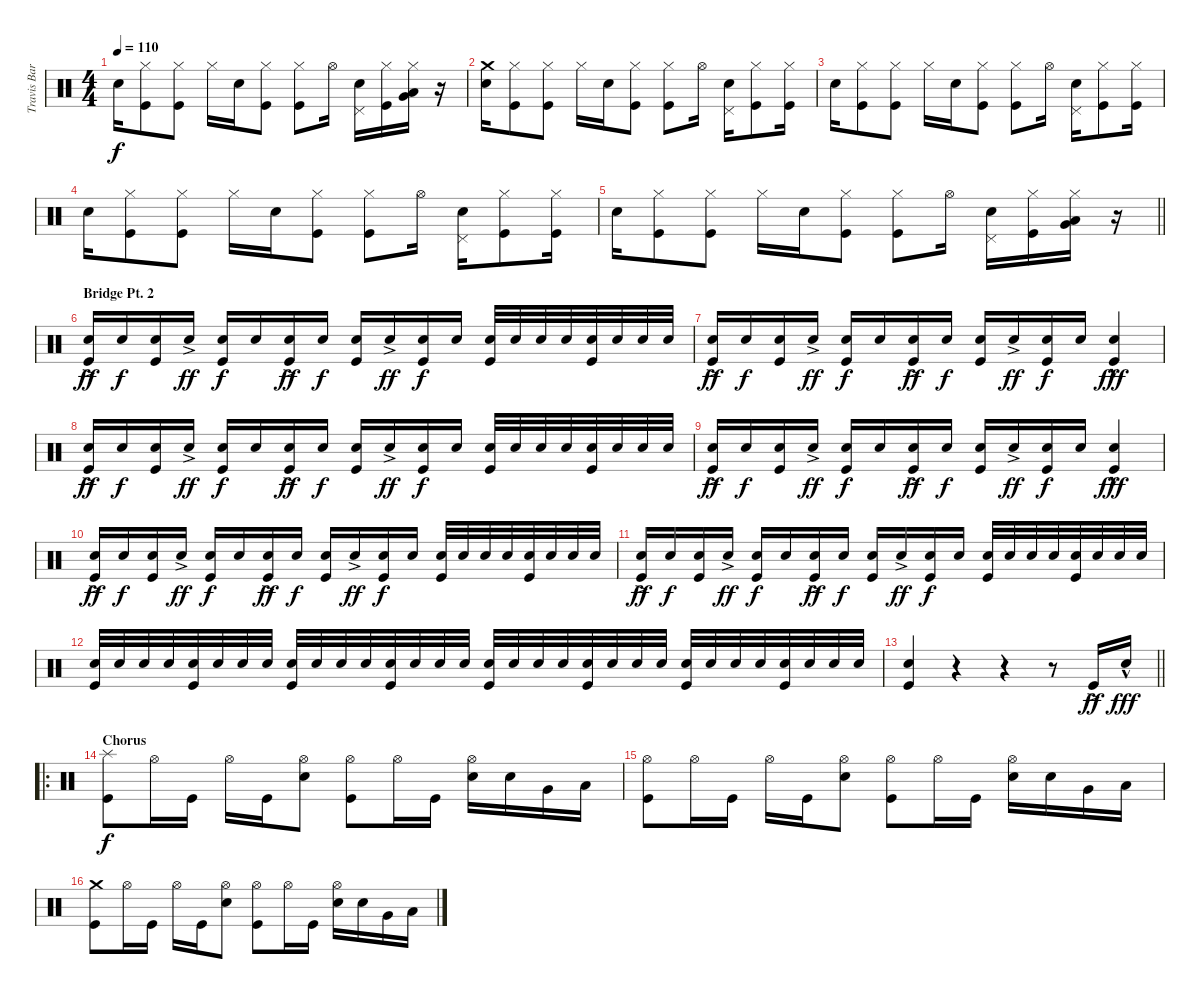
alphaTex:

\track ("Travis Barker (Drums)" "Travis Bar") {instrument percussion bank 10}
\staff {score}
\articulation defaults
\ts (4 4)
\tempo 110
\clef neutral
\ks c "Snare (hit) 2".16{dy f}
("Hi-Hat (closed)" "Kick (hit)").8 ("Hi-Hat (closed)" "Kick (hit)").8 "Hi-Hat (closed)".16 "Snare (hit) 2".16 ("Hi-Hat (closed)" "Kick (hit)").8 ("Hi-Hat (closed)" "Kick (hit)").8 "Hi-Hat (open)".16 ("Pedal Hi-Hat (hit)" "Snare (hit) 2").16 ("Hi-Hat (closed)" "Kick (hit)").16 ("Hi-Hat (closed)" "Very Low Tom (hit)" "Low Floor Tom (hit)").16 r.16 |
("Crash medium (hit)" "Snare (hit) 2").16 ("Hi-Hat (closed)" "Kick (hit)").8 ("Hi-Hat (closed)" "Kick (hit)").8 "Hi-Hat (closed)".16 "Snare (hit) 2".16 ("Hi-Hat (closed)" "Kick (hit)").8 ("Hi-Hat (closed)" "Kick (hit)").8 "Hi-Hat (open)".16 ("Pedal Hi-Hat (hit)" "Snare (hit) 2").16 ("Hi-Hat (closed)" "Kick (hit)").8 ("Hi-Hat (closed)" "Kick (hit)").16 |
"Snare (hit) 2".16 ("Hi-Hat (closed)" "Kick (hit)").8 ("Hi-Hat (closed)" "Kick (hit)").8 "Hi-Hat (closed)".16 "Snare (hit) 2".16 ("Hi-Hat (closed)" "Kick (hit)").8 ("Hi-Hat (closed)" "Kick (hit)").8 "Hi-Hat (open)".16 ("Pedal Hi-Hat (hit)" "Snare (hit) 2").16 ("Hi-Hat (closed)" "Kick (hit)").8 ("Hi-Hat (closed)" "Kick (hit)").16 |
"Snare (hit) 2".16 ("Hi-Hat (closed)" "Kick (hit)").8 ("Hi-Hat (closed)" "Kick (hit)").8 "Hi-Hat (closed)".16 "Snare (hit) 2".16 ("Hi-Hat (closed)" "Kick (hit)").8 ("Hi-Hat (closed)" "Kick (hit)").8 "Hi-Hat (open)".16 ("Pedal Hi-Hat (hit)" "Snare (hit) 2").16 ("Hi-Hat (closed)" "Kick (hit)").8 ("Hi-Hat (closed)" "Kick (hit)").16 |
\barLineRight lightlight "Snare (hit) 2".16
("Hi-Hat (closed)" "Kick (hit)").8 ("Hi-Hat (closed)" "Kick (hit)").8 "Hi-Hat (closed)".16 "Snare (hit) 2".16 ("Hi-Hat (closed)" "Kick (hit)").8 ("Hi-Hat (closed)" "Kick (hit)").8 "Hi-Hat (open)".16 ("Pedal Hi-Hat (hit)" "Snare (hit) 2").16 ("Hi-Hat (closed)" "Kick (hit)").16 ("Hi-Hat (closed)" "Very Low Tom (hit)" "Low Floor Tom (hit)").16 r.16 |
\section ("" "Bridge Pt. 2")
("Snare (hit) 2"{ac} "Kick (hit)").16{dy ff} "Snare (hit) 2".16{dy f} ("Snare (hit) 2" "Kick (hit)").16 "Snare (hit) 2"{ac}.16{dy ff} ("Snare (hit) 2" "Kick (hit)").16{dy f} "Snare (hit) 2".16 ("Snare (hit) 2"{ac} "Kick (hit)").16{dy ff} "Snare (hit) 2".16{dy f} ("Snare (hit) 2" "Kick (hit)").16 "Snare (hit) 2"{ac}.16{dy ff} ("Snare (hit) 2" "Kick (hit)").16{dy f} "Snare (hit) 2".16 ("Snare (hit) 2" "Kick (hit)").32 "Snare (hit) 2".32 "Snare (hit) 2".32 "Snare (hit) 2".32 ("Snare (hit) 2" "Kick (hit)").32 "Snare (hit) 2".32 "Snare (hit) 2".32 "Snare (hit) 2".32 |
("Snare (hit) 2"{ac} "Kick (hit)").16{dy ff} "Snare (hit) 2".16{dy f} ("Snare (hit) 2" "Kick (hit)").16 "Snare (hit) 2"{ac}.16{dy ff} ("Snare (hit) 2" "Kick (hit)").16{dy f} "Snare (hit) 2".16 ("Snare (hit) 2"{ac} "Kick (hit)").16{dy ff} "Snare (hit) 2".16{dy f} ("Snare (hit) 2" "Kick (hit)").16 "Snare (hit) 2"{ac}.16{dy ff} ("Snare (hit) 2" "Kick (hit)").16{dy f} "Snare (hit) 2".16 ("Snare (hit) 2"{hac} "Kick (hit)").4{dy fff} |
("Snare (hit) 2"{ac} "Kick (hit)").16{dy ff} "Snare (hit) 2".16{dy f} ("Snare (hit) 2" "Kick (hit)").16 "Snare (hit) 2"{ac}.16{dy ff} ("Snare (hit) 2" "Kick (hit)").16{dy f} "Snare (hit) 2".16 ("Snare (hit) 2"{ac} "Kick (hit)").16{dy ff} "Snare (hit) 2".16{dy f} ("Snare (hit) 2" "Kick (hit)").16 "Snare (hit) 2"{ac}.16{dy ff} ("Snare (hit) 2" "Kick (hit)").16{dy f} "Snare (hit) 2".16 ("Snare (hit) 2" "Kick (hit)").32 "Snare (hit) 2".32 "Snare (hit) 2".32 "Snare (hit) 2".32 ("Snare (hit) 2" "Kick (hit)").32 "Snare (hit) 2".32 "Snare (hit) 2".32 "Snare (hit) 2".32 |
("Snare (hit) 2"{ac} "Kick (hit)").16{dy ff} "Snare (hit) 2".16{dy f} ("Snare (hit) 2" "Kick (hit)").16 "Snare (hit) 2"{ac}.16{dy ff} ("Snare (hit) 2" "Kick (hit)").16{dy f} "Snare (hit) 2".16 ("Snare (hit) 2"{ac} "Kick (hit)").16{dy ff} "Snare (hit) 2".16{dy f} ("Snare (hit) 2" "Kick (hit)").16 "Snare (hit) 2"{ac}.16{dy ff} ("Snare (hit) 2" "Kick (hit)").16{dy f} "Snare (hit) 2".16 ("Snare (hit) 2"{hac} "Kick (hit)").4{dy fff} |
("Snare (hit) 2"{ac} "Kick (hit)").16{dy ff} "Snare (hit) 2".16{dy f} ("Snare (hit) 2" "Kick (hit)").16 "Snare (hit) 2"{ac}.16{dy ff} ("Snare (hit) 2" "Kick (hit)").16{dy f} "Snare (hit) 2".16 ("Snare (hit) 2"{ac} "Kick (hit)").16{dy ff} "Snare (hit) 2".16{dy f} ("Snare (hit) 2" "Kick (hit)").16 "Snare (hit) 2"{ac}.16{dy ff} ("Snare (hit) 2" "Kick (hit)").16{dy f} "Snare (hit) 2".16 ("Snare (hit) 2" "Kick (hit)").32 "Snare (hit) 2".32 "Snare (hit) 2".32 "Snare (hit) 2".32 ("Snare (hit) 2" "Kick (hit)").32 "Snare (hit) 2".32 "Snare (hit) 2".32 "Snare (hit) 2".32 |
("Snare (hit) 2"{ac} "Kick (hit)").16{dy ff} "Snare (hit) 2".16{dy f} ("Snare (hit) 2" "Kick (hit)").16 "Snare (hit) 2"{ac}.16{dy ff} ("Snare (hit) 2" "Kick (hit)").16{dy f} "Snare (hit) 2".16 ("Snare (hit) 2"{ac} "Kick (hit)").16{dy ff} "Snare (hit) 2".16{dy f} ("Snare (hit) 2" "Kick (hit)").16 "Snare (hit) 2"{ac}.16{dy ff} ("Snare (hit) 2" "Kick (hit)").16{dy f} "Snare (hit) 2".16 ("Snare (hit) 2" "Kick (hit)").32 "Snare (hit) 2".32 "Snare (hit) 2".32 "Snare (hit) 2".32 ("Snare (hit) 2" "Kick (hit)").32 "Snare (hit) 2".32 "Snare (hit) 2".32 "Snare (hit) 2".32 |
("Snare (hit) 2" "Kick (hit)").32 "Snare (hit) 2".32 "Snare (hit) 2".32 "Snare (hit) 2".32 ("Snare (hit) 2" "Kick (hit)").32 "Snare (hit) 2".32 "Snare (hit) 2".32 "Snare (hit) 2".32 ("Snare (hit) 2" "Kick (hit)").32 "Snare (hit) 2".32 "Snare (hit) 2".32 "Snare (hit) 2".32 ("Snare (hit) 2" "Kick (hit)").32 "Snare (hit) 2".32 "Snare (hit) 2".32 "Snare (hit) 2".32 ("Snare (hit) 2" "Kick (hit)").32 "Snare (hit) 2".32 "Snare (hit) 2".32 "Snare (hit) 2".32 ("Snare (hit) 2" "Kick (hit)").32 "Snare (hit) 2".32 "Snare (hit) 2".32 "Snare (hit) 2".32 ("Snare (hit) 2" "Kick (hit)").32 "Snare (hit) 2".32 "Snare (hit) 2".32 "Snare (hit) 2".32 ("Snare (hit) 2" "Kick (hit)").32 "Snare (hit) 2".32 "Snare (hit) 2".32 "Snare (hit) 2".32 |
\barLineRight lightlight
("Snare (hit) 2" "Kick (hit)").4 r.4 r.4 r.8 "Kick (hit)"{ac}.16{dy ff} "Snare (hit) 2"{hac}.16{dy fff} |
\ro
\section ("" "Chorus")
("Splash (hit)" "Kick (hit)").8{dy f} "Hi-Hat (open)".16 "Kick (hit)".16 "Hi-Hat (open)".16 "Kick (hit)".16 ("Hi-Hat (open)" "Snare (hit) 2").8 ("Hi-Hat (open)" "Kick (hit)").8 "Hi-Hat (open)".16 "Kick (hit)".16 ("Hi-Hat (open)" "Snare (hit) 2").16 "Snare (hit) 2".16 "Very Low Tom (hit)".16 "Low Floor Tom (hit)".16 |
("Hi-Hat (open)" "Kick (hit)").8 "Hi-Hat (open)".16 "Kick (hit)".16 "Hi-Hat (open)".16 "Kick (hit)".16 ("Hi-Hat (open)" "Snare (hit) 2").8 ("Hi-Hat (open)" "Kick (hit)").8 "Hi-Hat (open)".16 "Kick (hit)".16 ("Hi-Hat (open)" "Snare (hit) 2").16 "Snare (hit) 2".16 "Very Low Tom (hit)".16 "Low Floor Tom (hit)".16 |
("Crash medium (hit)" "Kick (hit)").8 "Hi-Hat (open)".16 "Kick (hit)".16 "Hi-Hat (open)".16 "Kick (hit)".16 ("Hi-Hat (open)" "Snare (hit) 2").8 ("Hi-Hat (open)" "Kick (hit)").8 "Hi-Hat (open)".16 "Kick (hit)".16 ("Hi-Hat (open)" "Snare (hit) 2").16 "Snare (hit) 2".16 "Very Low Tom (hit)".16 "Low Floor Tom (hit)".16
